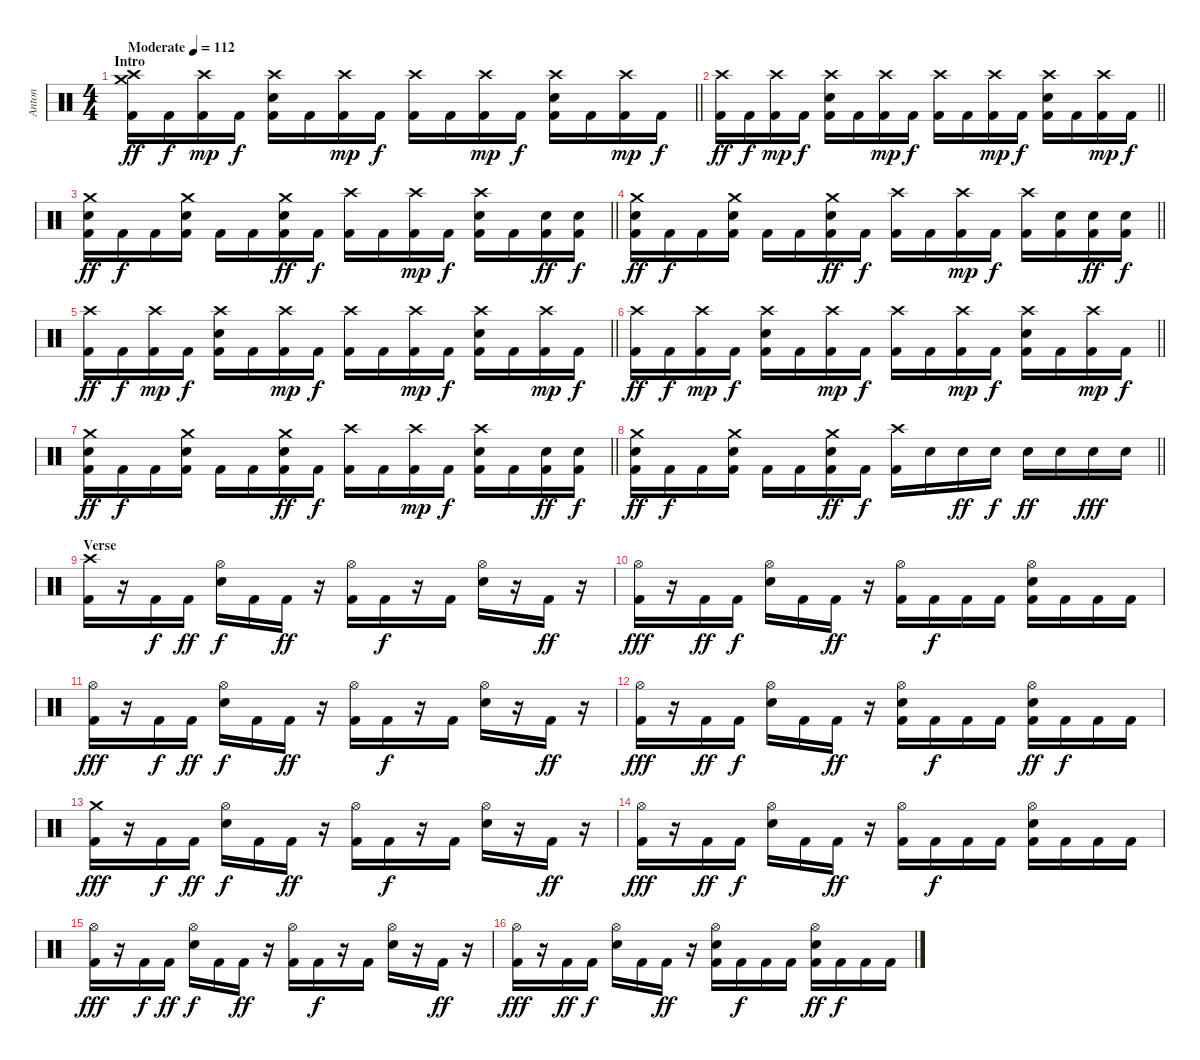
\track ("Anton" "Anton") {instrument percussion}
\staff
\articulation defaults
\ts (4 4)
\section ("" "Intro")
\tempo (112 "Moderate")
\clef neutral
\barLineRight lightlight
\ks c
("Crash medium (hit)" "Crash high (hit)" "Kick (hit) 2").16{dy ff} "Kick (hit) 2".16{dy f} ("Crash high (hit)" "Kick (hit) 2").16{dy mp} "Kick (hit) 2".16{dy f} ("Crash high (hit)" "Electric Snare (hit)" "Kick (hit) 2").16 "Kick (hit) 2".16 ("Crash high (hit)" "Kick (hit) 2").16{dy mp} "Kick (hit) 2".16{dy f} ("Crash high (hit)" "Kick (hit) 2").16 "Kick (hit) 2".16 ("Crash high (hit)" "Kick (hit) 2").16{dy mp} "Kick (hit) 2".16{dy f} ("Crash high (hit)" "Electric Snare (hit)" "Kick (hit) 2").16 "Kick (hit) 2".16 ("Crash high (hit)" "Kick (hit) 2").16{dy mp} "Kick (hit) 2".16{dy f} |
\barLineRight lightlight
("Crash high (hit)" "Kick (hit) 2").16{dy ff} "Kick (hit) 2".16{dy f} ("Crash high (hit)" "Kick (hit) 2").16{dy mp} "Kick (hit) 2".16{dy f} ("Crash high (hit)" "Electric Snare (hit)" "Kick (hit) 2").16 "Kick (hit) 2".16 ("Crash high (hit)" "Kick (hit) 2").16{dy mp} "Kick (hit) 2".16{dy f} ("Crash high (hit)" "Kick (hit) 2").16 "Kick (hit) 2".16 ("Crash high (hit)" "Kick (hit) 2").16{dy mp} "Kick (hit) 2".16{dy f} ("Crash high (hit)" "Electric Snare (hit)" "Kick (hit) 2").16 "Kick (hit) 2".16 ("Crash high (hit)" "Kick (hit) 2").16{dy mp} "Kick (hit) 2".16{dy f} |
\barLineRight lightlight
("Crash medium (hit)" "Electric Snare (hit)" "Kick (hit) 2").16{dy ff} "Kick (hit) 2".16{dy f} "Kick (hit) 2".16 ("Crash medium (hit)" "Electric Snare (hit)" "Kick (hit) 2").16 "Kick (hit) 2".16 "Kick (hit) 2".16 ("Crash medium (hit)" "Electric Snare (hit)" "Kick (hit) 2").16{dy ff} "Kick (hit) 2".16{dy f} ("Crash high (hit)" "Kick (hit) 2").16 "Kick (hit) 2".16 ("Crash high (hit)" "Kick (hit) 2").16{dy mp} "Kick (hit) 2".16{dy f} ("Crash high (hit)" "Electric Snare (hit)" "Kick (hit) 2").16 "Kick (hit) 2".16 ("Electric Snare (hit)" "Kick (hit) 2").16{dy ff} ("Electric Snare (hit)" "Kick (hit) 2").16{dy f} |
\barLineRight lightlight
("Crash medium (hit)" "Electric Snare (hit)" "Kick (hit) 2").16{dy ff} "Kick (hit) 2".16{dy f} "Kick (hit) 2".16 ("Crash medium (hit)" "Electric Snare (hit)" "Kick (hit) 2").16 "Kick (hit) 2".16 "Kick (hit) 2".16 ("Crash medium (hit)" "Electric Snare (hit)" "Kick (hit) 2").16{dy ff} "Kick (hit) 2".16{dy f} ("Crash high (hit)" "Kick (hit) 2").16 "Kick (hit) 2".16 ("Crash high (hit)" "Kick (hit) 2").16{dy mp} "Kick (hit) 2".16{dy f} ("Crash high (hit)" "Kick (hit) 2").16 ("Electric Snare (hit)" "Kick (hit) 2").16 ("Electric Snare (hit)" "Kick (hit) 2").16{dy ff} ("Electric Snare (hit)" "Kick (hit) 2").16{dy f} |
\barLineRight lightlight
("Crash high (hit)" "Kick (hit) 2").16{dy ff} "Kick (hit) 2".16{dy f} ("Crash high (hit)" "Kick (hit) 2").16{dy mp} "Kick (hit) 2".16{dy f} ("Crash high (hit)" "Electric Snare (hit)" "Kick (hit) 2").16 "Kick (hit) 2".16 ("Crash high (hit)" "Kick (hit) 2").16{dy mp} "Kick (hit) 2".16{dy f} ("Crash high (hit)" "Kick (hit) 2").16 "Kick (hit) 2".16 ("Crash high (hit)" "Kick (hit) 2").16{dy mp} "Kick (hit) 2".16{dy f} ("Crash high (hit)" "Electric Snare (hit)" "Kick (hit) 2").16 "Kick (hit) 2".16 ("Crash high (hit)" "Kick (hit) 2").16{dy mp} "Kick (hit) 2".16{dy f} |
\barLineRight lightlight
("Crash high (hit)" "Kick (hit) 2").16{dy ff} "Kick (hit) 2".16{dy f} ("Crash high (hit)" "Kick (hit) 2").16{dy mp} "Kick (hit) 2".16{dy f} ("Crash high (hit)" "Electric Snare (hit)" "Kick (hit) 2").16 "Kick (hit) 2".16 ("Crash high (hit)" "Kick (hit) 2").16{dy mp} "Kick (hit) 2".16{dy f} ("Crash high (hit)" "Kick (hit) 2").16 "Kick (hit) 2".16 ("Crash high (hit)" "Kick (hit) 2").16{dy mp} "Kick (hit) 2".16{dy f} ("Crash high (hit)" "Electric Snare (hit)" "Kick (hit) 2").16 "Kick (hit) 2".16 ("Crash high (hit)" "Kick (hit) 2").16{dy mp} "Kick (hit) 2".16{dy f} |
\barLineRight lightlight
("Crash medium (hit)" "Electric Snare (hit)" "Kick (hit) 2").16{dy ff} "Kick (hit) 2".16{dy f} "Kick (hit) 2".16 ("Crash medium (hit)" "Electric Snare (hit)" "Kick (hit) 2").16 "Kick (hit) 2".16 "Kick (hit) 2".16 ("Crash medium (hit)" "Electric Snare (hit)" "Kick (hit) 2").16{dy ff} "Kick (hit) 2".16{dy f} ("Crash high (hit)" "Kick (hit) 2").16 "Kick (hit) 2".16 ("Crash high (hit)" "Kick (hit) 2").16{dy mp} "Kick (hit) 2".16{dy f} ("Crash high (hit)" "Electric Snare (hit)" "Kick (hit) 2").16 "Kick (hit) 2".16 ("Electric Snare (hit)" "Kick (hit) 2").16{dy ff} ("Electric Snare (hit)" "Kick (hit) 2").16{dy f} |
\barLineRight lightlight
("Crash medium (hit)" "Electric Snare (hit)" "Kick (hit) 2").16{dy ff} "Kick (hit) 2".16{dy f} "Kick (hit) 2".16 ("Crash medium (hit)" "Electric Snare (hit)" "Kick (hit) 2").16 "Kick (hit) 2".16 "Kick (hit) 2".16 ("Crash medium (hit)" "Electric Snare (hit)" "Kick (hit) 2").16{dy ff} "Kick (hit) 2".16{dy f} ("Crash high (hit)" "Kick (hit) 2").16 "Electric Snare (hit)".16 "Electric Snare (hit)".16{dy ff} "Electric Snare (hit)".16{dy f} "Electric Snare (hit)".16{dy ff} "Electric Snare (hit)".16 "Electric Snare (hit)".16{dy fff} "Electric Snare (hit)".16 |
\section ("" "Verse")
("Crash high (hit)" "Kick (hit) 2").16 r.16 "Kick (hit) 2".16{dy f} "Kick (hit) 2".16{dy ff} ("Hi-Hat (open)" "Electric Snare (hit)").16{dy f} "Kick (hit) 2".16 "Kick (hit) 2".16{dy ff} r.16 ("Hi-Hat (open)" "Kick (hit) 2").16 "Kick (hit) 2".16{dy f} r.16 "Kick (hit) 2".16 ("Hi-Hat (open)" "Electric Snare (hit)").16 r.16 "Kick (hit) 2".16{dy ff} r.16 |
("Hi-Hat (open)" "Kick (hit) 2").16{dy fff} r.16 "Kick (hit) 2".16{dy ff} "Kick (hit) 2".16{dy f} ("Hi-Hat (open)" "Electric Snare (hit)").16 "Kick (hit) 2".16 "Kick (hit) 2".16{dy ff} r.16 ("Hi-Hat (open)" "Kick (hit) 2").16 "Kick (hit) 2".16{dy f} "Kick (hit) 2".16 "Kick (hit) 2".16 ("Hi-Hat (open)" "Electric Snare (hit)" "Kick (hit) 2").16 "Kick (hit) 2".16 "Kick (hit) 2".16 "Kick (hit) 2".16 |
("Hi-Hat (open)" "Kick (hit) 2").16{dy fff} r.16 "Kick (hit) 2".16{dy f} "Kick (hit) 2".16{dy ff} ("Hi-Hat (open)" "Electric Snare (hit)").16{dy f} "Kick (hit) 2".16 "Kick (hit) 2".16{dy ff} r.16 ("Hi-Hat (open)" "Kick (hit) 2").16 "Kick (hit) 2".16{dy f} r.16 "Kick (hit) 2".16 ("Hi-Hat (open)" "Electric Snare (hit)").16 r.16 "Kick (hit) 2".16{dy ff} r.16 |
("Hi-Hat (open)" "Kick (hit) 2").16{dy fff} r.16 "Kick (hit) 2".16{dy ff} "Kick (hit) 2".16{dy f} ("Hi-Hat (open)" "Electric Snare (hit)").16 "Kick (hit) 2".16 "Kick (hit) 2".16{dy ff} r.16 ("Hi-Hat (open)" "Electric Snare (hit)" "Kick (hit) 2").16 "Kick (hit) 2".16{dy f} "Kick (hit) 2".16 "Kick (hit) 2".16 ("Hi-Hat (open)" "Electric Snare (hit)" "Kick (hit) 2").16{dy ff} "Kick (hit) 2".16{dy f} "Kick (hit) 2".16 "Kick (hit) 2".16 |
("Crash medium (hit)" "Kick (hit) 2").16{dy fff} r.16 "Kick (hit) 2".16{dy f} "Kick (hit) 2".16{dy ff} ("Hi-Hat (open)" "Electric Snare (hit)").16{dy f} "Kick (hit) 2".16 "Kick (hit) 2".16{dy ff} r.16 ("Hi-Hat (open)" "Kick (hit) 2").16 "Kick (hit) 2".16{dy f} r.16 "Kick (hit) 2".16 ("Hi-Hat (open)" "Electric Snare (hit)").16 r.16 "Kick (hit) 2".16{dy ff} r.16 |
("Hi-Hat (open)" "Kick (hit) 2").16{dy fff} r.16 "Kick (hit) 2".16{dy ff} "Kick (hit) 2".16{dy f} ("Hi-Hat (open)" "Electric Snare (hit)").16 "Kick (hit) 2".16 "Kick (hit) 2".16{dy ff} r.16 ("Hi-Hat (open)" "Kick (hit) 2").16 "Kick (hit) 2".16{dy f} "Kick (hit) 2".16 "Kick (hit) 2".16 ("Hi-Hat (open)" "Electric Snare (hit)" "Kick (hit) 2").16 "Kick (hit) 2".16 "Kick (hit) 2".16 "Kick (hit) 2".16 |
("Hi-Hat (open)" "Kick (hit) 2").16{dy fff} r.16 "Kick (hit) 2".16{dy f} "Kick (hit) 2".16{dy ff} ("Hi-Hat (open)" "Electric Snare (hit)").16{dy f} "Kick (hit) 2".16 "Kick (hit) 2".16{dy ff} r.16 ("Hi-Hat (open)" "Kick (hit) 2").16 "Kick (hit) 2".16{dy f} r.16 "Kick (hit) 2".16 ("Hi-Hat (open)" "Electric Snare (hit)").16 r.16 "Kick (hit) 2".16{dy ff} r.16 |
("Hi-Hat (open)" "Kick (hit) 2").16{dy fff} r.16 "Kick (hit) 2".16{dy ff} "Kick (hit) 2".16{dy f} ("Hi-Hat (open)" "Electric Snare (hit)").16 "Kick (hit) 2".16 "Kick (hit) 2".16{dy ff} r.16 ("Hi-Hat (open)" "Electric Snare (hit)" "Kick (hit) 2").16 "Kick (hit) 2".16{dy f} "Kick (hit) 2".16 "Kick (hit) 2".16 ("Hi-Hat (open)" "Electric Snare (hit)" "Kick (hit) 2").16{dy ff} "Kick (hit) 2".16{dy f} "Kick (hit) 2".16 "Kick (hit) 2".16
